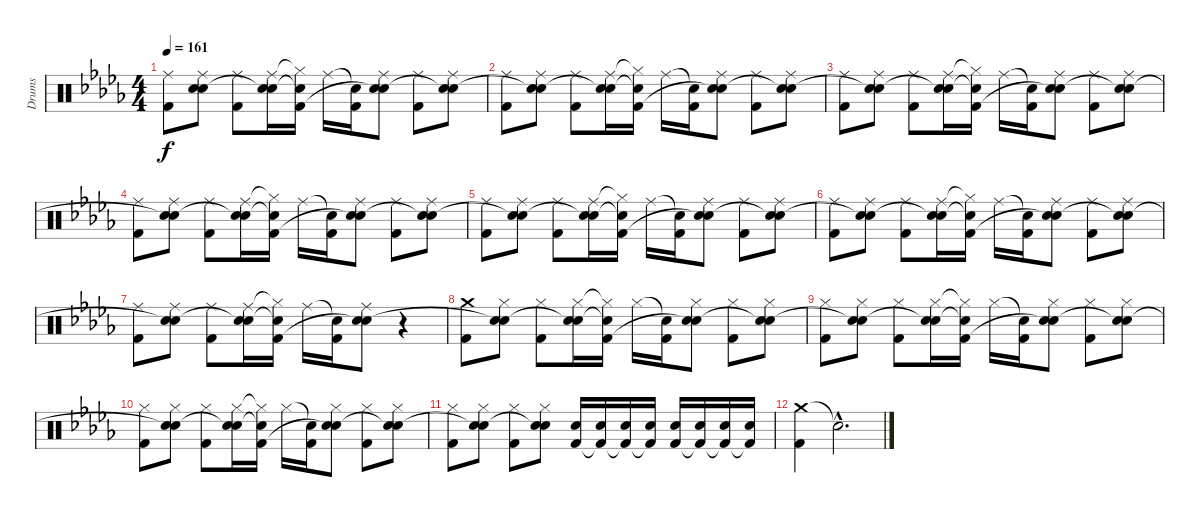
\track ("Drums" "Drums") {instrument percussion}
\staff {score}
\articulation defaults
\ts (4 4)
\tempo 161
\clef neutral
\ks bbminor
("Ride (middle)" "Kick (hit) 2").8{dy f} ("Ride (middle)" "Electric Snare (hit)" "Snare (hit)"{t}).8 ("Ride (middle)" "Kick (hit) 2").8 ("Ride (middle)" "Electric Snare (hit)" "Snare (hit)"{t}).16 ("Hi-Hat (closed)"{t} "Snare (hit)"{t} "Kick (hit) 2").16 "Ride (middle)".16 ("Snare (hit)"{t} "Kick (hit) 2").16 ("Ride (middle)" "Electric Snare (hit)" "Snare (hit)"{t}).8 ("Ride (middle)" "Kick (hit) 2").8 ("Ride (middle)" "Electric Snare (hit)" "Snare (hit)"{t}).8 |
("Ride (middle)" "Kick (hit) 2").8 ("Ride (middle)" "Electric Snare (hit)" "Snare (hit)"{t}).8 ("Ride (middle)" "Kick (hit) 2").8 ("Ride (middle)" "Electric Snare (hit)" "Snare (hit)"{t}).16 ("Hi-Hat (closed)"{t} "Snare (hit)"{t} "Kick (hit) 2").16 "Ride (middle)".16 ("Snare (hit)"{t} "Kick (hit) 2").16 ("Ride (middle)" "Electric Snare (hit)" "Snare (hit)"{t}).8 ("Ride (middle)" "Kick (hit) 2").8 ("Ride (middle)" "Electric Snare (hit)" "Snare (hit)"{t}).8 |
("Ride (middle)" "Kick (hit) 2").8 ("Ride (middle)" "Electric Snare (hit)" "Snare (hit)"{t}).8 ("Ride (middle)" "Kick (hit) 2").8 ("Ride (middle)" "Electric Snare (hit)" "Snare (hit)"{t}).16 ("Hi-Hat (closed)"{t} "Snare (hit)"{t} "Kick (hit) 2").16 "Ride (middle)".16 ("Snare (hit)"{t} "Kick (hit) 2").16 ("Ride (middle)" "Electric Snare (hit)" "Snare (hit)"{t}).8 ("Ride (middle)" "Kick (hit) 2").8 ("Ride (middle)" "Electric Snare (hit)" "Snare (hit)"{t}).8 |
("Ride (middle)" "Kick (hit) 2").8 ("Ride (middle)" "Electric Snare (hit)" "Snare (hit)"{t}).8 ("Ride (middle)" "Kick (hit) 2").8 ("Ride (middle)" "Electric Snare (hit)" "Snare (hit)"{t}).16 ("Hi-Hat (closed)"{t} "Snare (hit)"{t} "Kick (hit) 2").16 "Ride (middle)".16 ("Snare (hit)"{t} "Kick (hit) 2").16 ("Ride (middle)" "Electric Snare (hit)" "Snare (hit)"{t}).8 ("Ride (middle)" "Kick (hit) 2").8 ("Ride (middle)" "Electric Snare (hit)" "Snare (hit)"{t}).8 |
("Ride (middle)" "Kick (hit) 2").8 ("Ride (middle)" "Electric Snare (hit)" "Snare (hit)"{t}).8 ("Ride (middle)" "Kick (hit) 2").8 ("Ride (middle)" "Electric Snare (hit)" "Snare (hit)"{t}).16 ("Hi-Hat (closed)"{t} "Snare (hit)"{t} "Kick (hit) 2").16 "Ride (middle)".16 ("Snare (hit)"{t} "Kick (hit) 2").16 ("Ride (middle)" "Electric Snare (hit)" "Snare (hit)"{t}).8 ("Ride (middle)" "Kick (hit) 2").8 ("Ride (middle)" "Electric Snare (hit)" "Snare (hit)"{t}).8 |
("Ride (middle)" "Kick (hit) 2").8 ("Ride (middle)" "Electric Snare (hit)" "Snare (hit)"{t}).8 ("Ride (middle)" "Kick (hit) 2").8 ("Ride (middle)" "Electric Snare (hit)" "Snare (hit)"{t}).16 ("Hi-Hat (closed)"{t} "Snare (hit)"{t} "Kick (hit) 2").16 "Ride (middle)".16 ("Snare (hit)"{t} "Kick (hit) 2").16 ("Ride (middle)" "Electric Snare (hit)" "Snare (hit)"{t}).8 ("Ride (middle)" "Kick (hit) 2").8 ("Ride (middle)" "Electric Snare (hit)" "Snare (hit)"{t}).8 |
("Ride (middle)" "Kick (hit) 2").8 ("Ride (middle)" "Electric Snare (hit)" "Snare (hit)"{t}).8 ("Ride (middle)" "Kick (hit) 2").8 ("Ride (middle)" "Electric Snare (hit)" "Snare (hit)"{t}).16 ("Hi-Hat (closed)"{t} "Snare (hit)"{t} "Kick (hit) 2").16 "Ride (middle)".16 ("Snare (hit)"{t} "Kick (hit) 2").16 ("Ride (middle)" "Electric Snare (hit)" "Snare (hit)"{t}).8 r.4 |
("Crash medium (hit)" "Kick (hit) 2").8 ("Hi-Hat (closed)" "Electric Snare (hit)" "Snare (hit)"{t}).8 ("Hi-Hat (closed)" "Kick (hit) 2").8 ("Hi-Hat (closed)" "Electric Snare (hit)" "Snare (hit)"{t}).16 ("Hi-Hat (closed)"{t} "Snare (hit)"{t} "Kick (hit) 2").16 "Hi-Hat (closed)".16 ("Snare (hit)"{t} "Kick (hit) 2").16 ("Hi-Hat (closed)" "Electric Snare (hit)" "Snare (hit)"{t}).8 ("Hi-Hat (closed)" "Kick (hit) 2").8 ("Hi-Hat (closed)" "Electric Snare (hit)" "Snare (hit)"{t}).8 |
("Hi-Hat (closed)" "Kick (hit) 2").8 ("Hi-Hat (closed)" "Electric Snare (hit)" "Snare (hit)"{t}).8 ("Hi-Hat (closed)" "Kick (hit) 2").8 ("Hi-Hat (closed)" "Electric Snare (hit)" "Snare (hit)"{t}).16 ("Hi-Hat (closed)"{t} "Snare (hit)"{t} "Kick (hit) 2").16 "Hi-Hat (closed)".16 ("Snare (hit)"{t} "Kick (hit) 2").16 ("Hi-Hat (closed)" "Electric Snare (hit)" "Snare (hit)"{t}).8 ("Hi-Hat (closed)" "Kick (hit) 2").8 ("Hi-Hat (closed)" "Electric Snare (hit)" "Snare (hit)"{t}).8 |
("Hi-Hat (closed)" "Kick (hit) 2").8 ("Hi-Hat (closed)" "Electric Snare (hit)" "Snare (hit)"{t}).8 ("Hi-Hat (closed)" "Kick (hit) 2").8 ("Hi-Hat (closed)" "Electric Snare (hit)" "Snare (hit)"{t}).16 ("Hi-Hat (closed)"{t} "Snare (hit)"{t} "Kick (hit) 2").16 "Hi-Hat (closed)".16 ("Snare (hit)"{t} "Kick (hit) 2").16 ("Hi-Hat (closed)" "Electric Snare (hit)" "Snare (hit)"{t}).8 ("Hi-Hat (closed)" "Kick (hit) 2").8 ("Hi-Hat (closed)" "Electric Snare (hit)" "Snare (hit)"{t}).8 |
("Hi-Hat (closed)" "Kick (hit) 2").8 ("Hi-Hat (closed)" "Electric Snare (hit)" "Snare (hit)"{t}).8 ("Hi-Hat (closed)" "Kick (hit) 2").8 ("Hi-Hat (closed)" "Electric Snare (hit)" "Snare (hit)"{t}).8 ("Electric Snare (hit)" "Kick (hit) 2").16 ("Electric Snare (hit)" "Kick (hit) 2"{t}).16 ("Electric Snare (hit)" "Kick (hit) 2"{t}).16 ("Electric Snare (hit)" "Kick (hit) 2"{t}).16 ("Electric Snare (hit)" "Kick (hit) 2").16 ("Electric Snare (hit)" "Kick (hit) 2"{t}).16 ("Electric Snare (hit)" "Kick (hit) 2"{t}).16 ("Electric Snare (hit)" "Kick (hit) 2"{t}).16 |
("Crash medium (hit)" "Kick (hit) 2").4 "Snare (hit)"{hac t}.2{d}
